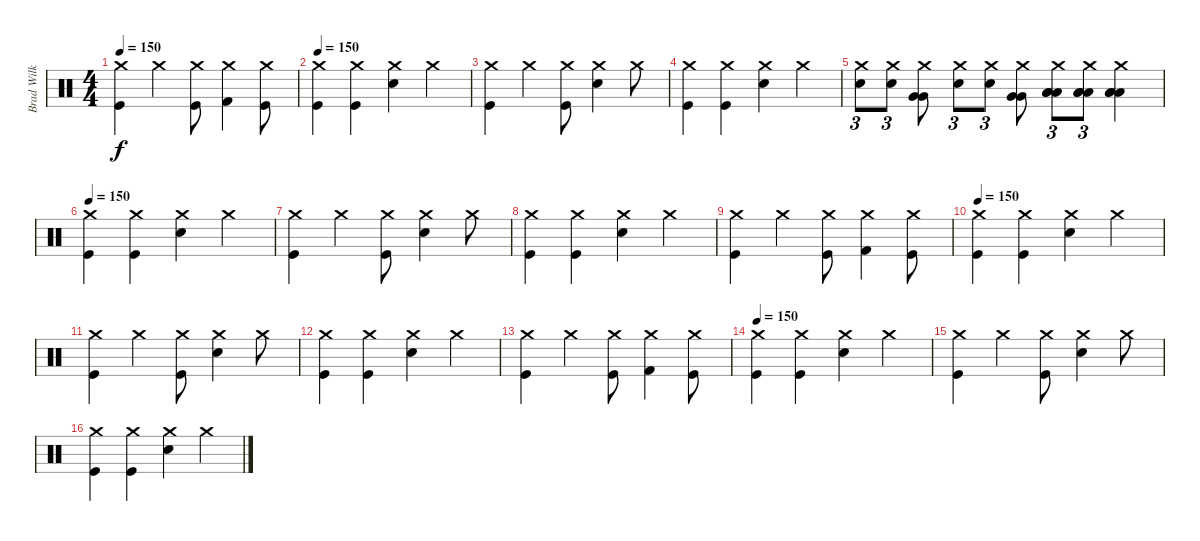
\track ("Brad Wilk" "Brad Wilk") {instrument percussion}
\staff {score}
\articulation defaults
\ts (4 4)
\tempo 150
\clef neutral
\ks c
("Crash medium (hit)" "Kick (hit)").4{dy f} "Crash medium (hit)".4 ("Crash medium (hit)" "Kick (hit)").8 ("Crash medium (hit)" "Kick (hit) 2").4 ("Crash medium (hit)" "Kick (hit)").8 |
\tempo 150
("Crash medium (hit)" "Kick (hit)").4 ("Crash medium (hit)" "Kick (hit)").4 ("Crash medium (hit)" "Electric Snare (hit)").4 "Crash medium (hit)".4 |
("Crash medium (hit)" "Kick (hit)").4 "Crash medium (hit)".4 ("Crash medium (hit)" "Kick (hit)").8 ("Crash medium (hit)" "Electric Snare (hit)").4 "Crash medium (hit)".8 |
("Crash medium (hit)" "Kick (hit)").4 ("Crash medium (hit)" "Kick (hit)").4 ("Crash medium (hit)" "Electric Snare (hit)").4 "Crash medium (hit)".4 |
("Crash medium (hit)" "Electric Snare (hit)").8{tu (3 2)} ("Crash medium (hit)" "Electric Snare (hit)").8{tu (3 2)} ("Crash medium (hit)" "Very Low Tom (hit)" "Very Low Tom (hit)").8 ("Crash medium (hit)" "Electric Snare (hit)").8{tu (3 2)} ("Crash medium (hit)" "Electric Snare (hit)").8{tu (3 2)} ("Crash medium (hit)" "Very Low Tom (hit)" "Very Low Tom (hit)").8 ("Crash medium (hit)" "Low Tom (hit)" "Low Tom (hit)" "Low Tom (hit)").8{tu (3 2)} ("Crash medium (hit)" "Low Tom (hit)" "Low Tom (hit)" "Low Tom (hit)").8{tu (3 2)} ("Crash medium (hit)" "Low Floor Tom (hit)" "Low Floor Tom (hit)" "Low Floor Tom (hit)").4 |
\tempo 150
("Crash medium (hit)" "Kick (hit)").4 ("Crash medium (hit)" "Kick (hit)").4 ("Crash medium (hit)" "Electric Snare (hit)").4 "Crash medium (hit)".4 |
("Crash medium (hit)" "Kick (hit)").4 "Crash medium (hit)".4 ("Crash medium (hit)" "Kick (hit)").8 ("Crash medium (hit)" "Electric Snare (hit)").4 "Crash medium (hit)".8 |
("Crash medium (hit)" "Kick (hit)").4 ("Crash medium (hit)" "Kick (hit)").4 ("Crash medium (hit)" "Electric Snare (hit)").4 "Crash medium (hit)".4 |
("Crash medium (hit)" "Kick (hit)").4 "Crash medium (hit)".4 ("Crash medium (hit)" "Kick (hit)").8 ("Crash medium (hit)" "Kick (hit) 2").4 ("Crash medium (hit)" "Kick (hit)").8 |
\tempo 150
("Crash medium (hit)" "Kick (hit)").4 ("Crash medium (hit)" "Kick (hit)").4 ("Crash medium (hit)" "Electric Snare (hit)").4 "Crash medium (hit)".4 |
("Crash medium (hit)" "Kick (hit)").4 "Crash medium (hit)".4 ("Crash medium (hit)" "Kick (hit)").8 ("Crash medium (hit)" "Electric Snare (hit)").4 "Crash medium (hit)".8 |
("Crash medium (hit)" "Kick (hit)").4 ("Crash medium (hit)" "Kick (hit)").4 ("Crash medium (hit)" "Electric Snare (hit)").4 "Crash medium (hit)".4 |
("Crash medium (hit)" "Kick (hit)").4 "Crash medium (hit)".4 ("Crash medium (hit)" "Kick (hit)").8 ("Crash medium (hit)" "Kick (hit) 2").4 ("Crash medium (hit)" "Kick (hit)").8 |
\tempo 150
("Crash medium (hit)" "Kick (hit)").4 ("Crash medium (hit)" "Kick (hit)").4 ("Crash medium (hit)" "Electric Snare (hit)").4 "Crash medium (hit)".4 |
("Crash medium (hit)" "Kick (hit)").4 "Crash medium (hit)".4 ("Crash medium (hit)" "Kick (hit)").8 ("Crash medium (hit)" "Electric Snare (hit)").4 "Crash medium (hit)".8 |
("Crash medium (hit)" "Kick (hit)").4 ("Crash medium (hit)" "Kick (hit)").4 ("Crash medium (hit)" "Electric Snare (hit)").4 "Crash medium (hit)".4
